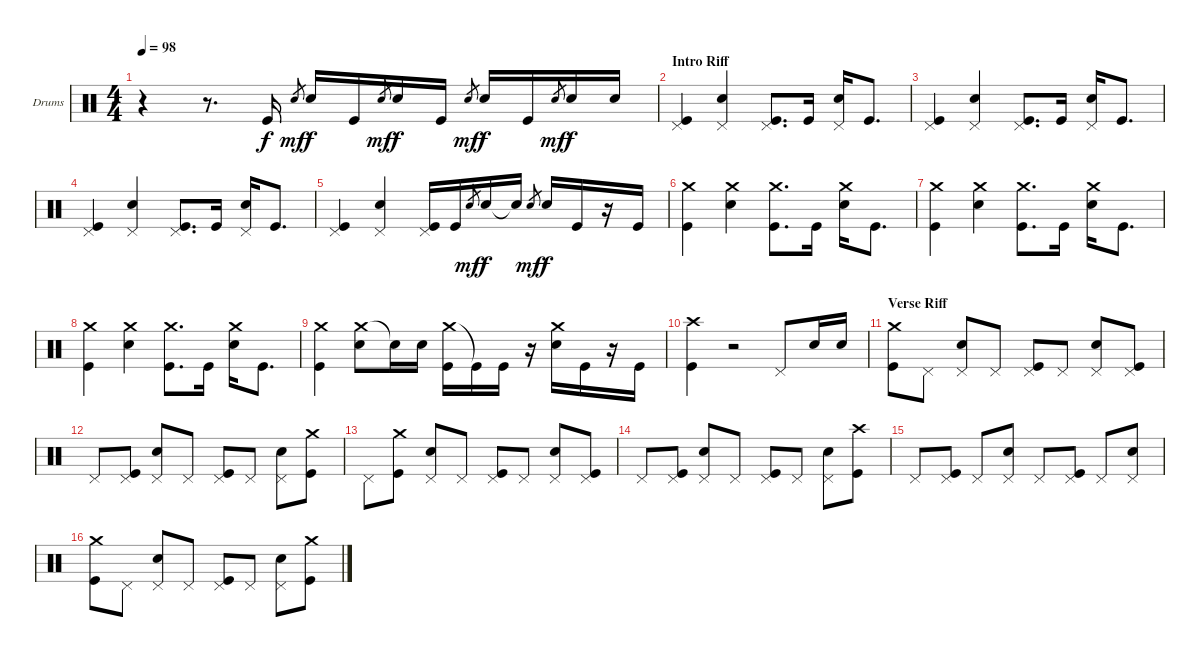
\bracketExtendMode groupsimilarinstruments
\firstSystemTrackNameOrientation horizontal
\otherSystemsTrackNameOrientation horizontal
\track ("Drumkit" "Drums") {instrument percussion}
\staff {score}
\articulation defaults
\ts (4 4)
\tempo 98
\clef neutral
\ks c
r.4{dy f} r.8{d} "Kick (hit)".16 "Snare (hit) 2".8{gr dy mf} "Snare (hit) 2".16{dy f} "Kick (hit)".16 "Snare (hit) 2".8{gr dy mf} "Snare (hit) 2".16{dy f} "Kick (hit)".16 "Snare (hit) 2".8{gr dy mf} "Snare (hit) 2".16{dy f} "Kick (hit)".16 "Snare (hit) 2".8{gr dy mf} "Snare (hit) 2".16{dy f} "Snare (hit) 2".16 |
\section ("" "Intro Riff")
("Pedal Hi-Hat (hit)" "Kick (hit)").4 ("Pedal Hi-Hat (hit)" "Snare (hit) 2").4 ("Pedal Hi-Hat (hit)" "Kick (hit)").8{d} "Kick (hit)".16 ("Pedal Hi-Hat (hit)" "Snare (hit) 2").16 "Kick (hit)".8{d} |
("Pedal Hi-Hat (hit)" "Kick (hit)").4 ("Pedal Hi-Hat (hit)" "Snare (hit) 2").4 ("Pedal Hi-Hat (hit)" "Kick (hit)").8{d} "Kick (hit)".16 ("Pedal Hi-Hat (hit)" "Snare (hit) 2").16 "Kick (hit)".8{d} |
("Pedal Hi-Hat (hit)" "Kick (hit)").4 ("Pedal Hi-Hat (hit)" "Snare (hit) 2").4 ("Pedal Hi-Hat (hit)" "Kick (hit)").8{d} "Kick (hit)".16 ("Pedal Hi-Hat (hit)" "Snare (hit) 2").16 "Kick (hit)".8{d} |
("Pedal Hi-Hat (hit)" "Kick (hit)").4 ("Pedal Hi-Hat (hit)" "Snare (hit) 2").4 ("Pedal Hi-Hat (hit)" "Kick (hit)").16 "Kick (hit)".16 "Snare (hit) 2".8{gr dy mf} "Snare (hit) 2".16{dy f} "Snare (hit) 2"{t}.16 "Snare (hit) 2".8{gr dy mf} "Snare (hit) 2".16{dy f} "Kick (hit)".16 r.16 "Kick (hit)".16 |
("Crash medium (hit)" "Kick (hit)").4 ("Crash medium (hit)" "Snare (hit) 2").4 ("Crash medium (hit)" "Kick (hit)").8{d} "Kick (hit)".16 ("Crash medium (hit)" "Snare (hit) 2").16 "Kick (hit)".8{d} |
("Crash medium (hit)" "Kick (hit)").4 ("Crash medium (hit)" "Snare (hit) 2").4 ("Crash medium (hit)" "Kick (hit)").8{d} "Kick (hit)".16 ("Crash medium (hit)" "Snare (hit) 2").16 "Kick (hit)".8{d} |
("Crash medium (hit)" "Kick (hit)").4 ("Crash medium (hit)" "Snare (hit) 2").4 ("Crash medium (hit)" "Kick (hit)").8{d} "Kick (hit)".16 ("Crash medium (hit)" "Snare (hit) 2").16 "Kick (hit)".8{d} |
("Crash medium (hit)" "Kick (hit)").4 ("Crash medium (hit)" "Snare (hit) 2").8 "Snare (hit) 2"{t}.16 "Snare (hit) 2".16 ("Crash medium (hit)" "Kick (hit)").16 "Kick (hit)"{t}.16 "Kick (hit)".16 r.16 ("Crash medium (hit)" "Snare (hit) 2").16 "Kick (hit)".16 r.16 "Kick (hit)".16 |
("Crash high (hit)" "Kick (hit)").4 r.2 "Pedal Hi-Hat (hit)".8 "Snare (hit) 2".16 "Snare (hit) 2".16 |
\section ("" "Verse Riff")
("Crash medium (hit)" "Kick (hit)").8 "Pedal Hi-Hat (hit)".8 ("Pedal Hi-Hat (hit)" "Snare (hit) 2").8 "Pedal Hi-Hat (hit)".8 ("Pedal Hi-Hat (hit)" "Kick (hit)").8 "Pedal Hi-Hat (hit)".8 ("Pedal Hi-Hat (hit)" "Snare (hit) 2").8 ("Pedal Hi-Hat (hit)" "Kick (hit)").8 |
"Pedal Hi-Hat (hit)".8 ("Pedal Hi-Hat (hit)" "Kick (hit)").8 ("Pedal Hi-Hat (hit)" "Snare (hit) 2").8 "Pedal Hi-Hat (hit)".8 ("Pedal Hi-Hat (hit)" "Kick (hit)").8 "Pedal Hi-Hat (hit)".8 ("Pedal Hi-Hat (hit)" "Snare (hit) 2").8 ("Crash medium (hit)" "Kick (hit)").8 |
"Pedal Hi-Hat (hit)".8 ("Crash medium (hit)" "Kick (hit)").8 ("Pedal Hi-Hat (hit)" "Snare (hit) 2").8 "Pedal Hi-Hat (hit)".8 ("Pedal Hi-Hat (hit)" "Kick (hit)").8 "Pedal Hi-Hat (hit)".8 ("Pedal Hi-Hat (hit)" "Snare (hit) 2").8 ("Pedal Hi-Hat (hit)" "Kick (hit)").8 |
"Pedal Hi-Hat (hit)".8 ("Pedal Hi-Hat (hit)" "Kick (hit)").8 ("Pedal Hi-Hat (hit)" "Snare (hit) 2").8 "Pedal Hi-Hat (hit)".8 ("Pedal Hi-Hat (hit)" "Kick (hit)").8 "Pedal Hi-Hat (hit)".8 ("Pedal Hi-Hat (hit)" "Snare (hit) 2").8 ("Crash high (hit)" "Kick (hit)").8 |
"Pedal Hi-Hat (hit)".8 ("Pedal Hi-Hat (hit)" "Kick (hit)").8 "Pedal Hi-Hat (hit)".8 ("Pedal Hi-Hat (hit)" "Snare (hit) 2").8 "Pedal Hi-Hat (hit)".8 ("Pedal Hi-Hat (hit)" "Kick (hit)").8 "Pedal Hi-Hat (hit)".8 ("Pedal Hi-Hat (hit)" "Snare (hit) 2").8 |
("Crash medium (hit)" "Kick (hit)").8 "Pedal Hi-Hat (hit)".8 ("Pedal Hi-Hat (hit)" "Snare (hit) 2").8 "Pedal Hi-Hat (hit)".8 ("Pedal Hi-Hat (hit)" "Kick (hit)").8 "Pedal Hi-Hat (hit)".8 ("Pedal Hi-Hat (hit)" "Snare (hit) 2").8 ("Crash medium (hit)" "Kick (hit)").8
